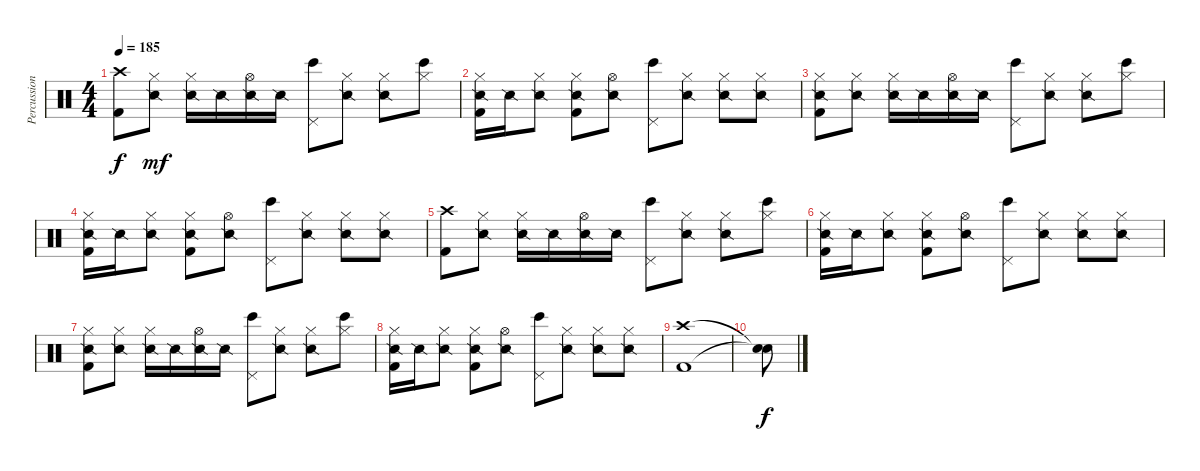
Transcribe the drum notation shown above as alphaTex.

\track ("Percussion" "Percussion") {instrument percussion}
\staff {score}
\articulation defaults
\ts (4 4)
\tempo 185
\clef neutral
\ks c
("Crash high (hit)" "Kick (hit) 2").8{dy f} ("Hi-Hat (closed)" "Snare (side stick) 2").8{dy mf} ("Hi-Hat (closed)" "Snare (side stick) 2").16 "Snare (side stick) 2".16 ("Hi-Hat (open)" "Snare (side stick) 2").16 "Snare (side stick) 2".16 ("Pedal Hi-Hat (hit)" "Bongo High (hit)").8 ("Hi-Hat (closed)" "Snare (side stick) 2").8 ("Hi-Hat (closed)" "Snare (side stick) 2").8 ("Hi-Hat (closed)" "Bongo High (hit)").8 |
("Hi-Hat (closed)" "Snare (side stick) 2" "Kick (hit) 2").16 "Snare (side stick) 2".16 ("Hi-Hat (closed)" "Snare (side stick) 2").8 ("Hi-Hat (closed)" "Snare (side stick) 2" "Kick (hit) 2").8 ("Hi-Hat (open)" "Snare (side stick) 2").8 ("Pedal Hi-Hat (hit)" "Bongo High (hit)").8 ("Hi-Hat (closed)" "Snare (side stick) 2").8 ("Hi-Hat (closed)" "Snare (side stick) 2").8 ("Hi-Hat (closed)" "Snare (side stick) 2").8 |
("Hi-Hat (closed)" "Snare (side stick) 2" "Kick (hit) 2").8 ("Hi-Hat (closed)" "Snare (side stick) 2").8 ("Hi-Hat (closed)" "Snare (side stick) 2").16 "Snare (side stick) 2".16 ("Hi-Hat (open)" "Snare (side stick) 2").16 "Snare (side stick) 2".16 ("Pedal Hi-Hat (hit)" "Bongo High (hit)").8 ("Hi-Hat (closed)" "Snare (side stick) 2").8 ("Hi-Hat (closed)" "Snare (side stick) 2").8 ("Hi-Hat (closed)" "Bongo High (hit)").8 |
("Hi-Hat (closed)" "Snare (side stick) 2" "Kick (hit) 2").16 "Snare (side stick) 2".16 ("Hi-Hat (closed)" "Snare (side stick) 2").8 ("Hi-Hat (closed)" "Snare (side stick) 2" "Kick (hit) 2").8 ("Hi-Hat (open)" "Snare (side stick) 2").8 ("Pedal Hi-Hat (hit)" "Bongo High (hit)").8 ("Hi-Hat (closed)" "Snare (side stick) 2").8 ("Hi-Hat (closed)" "Snare (side stick) 2").8 ("Hi-Hat (closed)" "Snare (side stick) 2").8 |
("Crash high (hit)" "Kick (hit) 2").8 ("Hi-Hat (closed)" "Snare (side stick) 2").8 ("Hi-Hat (closed)" "Snare (side stick) 2").16 "Snare (side stick) 2".16 ("Hi-Hat (open)" "Snare (side stick) 2").16 "Snare (side stick) 2".16 ("Pedal Hi-Hat (hit)" "Bongo High (hit)").8 ("Hi-Hat (closed)" "Snare (side stick) 2").8 ("Hi-Hat (closed)" "Snare (side stick) 2").8 ("Hi-Hat (closed)" "Bongo High (hit)").8 |
("Hi-Hat (closed)" "Snare (side stick) 2" "Kick (hit) 2").16 "Snare (side stick) 2".16 ("Hi-Hat (closed)" "Snare (side stick) 2").8 ("Hi-Hat (closed)" "Snare (side stick) 2" "Kick (hit) 2").8 ("Hi-Hat (open)" "Snare (side stick) 2").8 ("Pedal Hi-Hat (hit)" "Bongo High (hit)").8 ("Hi-Hat (closed)" "Snare (side stick) 2").8 ("Hi-Hat (closed)" "Snare (side stick) 2").8 ("Hi-Hat (closed)" "Snare (side stick) 2").8 |
("Hi-Hat (closed)" "Snare (side stick) 2" "Kick (hit) 2").8 ("Hi-Hat (closed)" "Snare (side stick) 2").8 ("Hi-Hat (closed)" "Snare (side stick) 2").16 "Snare (side stick) 2".16 ("Hi-Hat (open)" "Snare (side stick) 2").16 "Snare (side stick) 2".16 ("Pedal Hi-Hat (hit)" "Bongo High (hit)").8 ("Hi-Hat (closed)" "Snare (side stick) 2").8 ("Hi-Hat (closed)" "Snare (side stick) 2").8 ("Hi-Hat (closed)" "Bongo High (hit)").8 |
("Hi-Hat (closed)" "Snare (side stick) 2" "Kick (hit) 2").16 "Snare (side stick) 2".16 ("Hi-Hat (closed)" "Snare (side stick) 2").8 ("Hi-Hat (closed)" "Snare (side stick) 2" "Kick (hit) 2").8 ("Hi-Hat (open)" "Snare (side stick) 2").8 ("Pedal Hi-Hat (hit)" "Bongo High (hit)").8 ("Hi-Hat (closed)" "Snare (side stick) 2").8 ("Hi-Hat (closed)" "Snare (side stick) 2").8 ("Hi-Hat (closed)" "Snare (side stick) 2").8 |
("Crash high (hit)" "Kick (hit) 2").1 |
("Snare (hit)"{t} "Snare (hit)"{t}).8{dy f}
